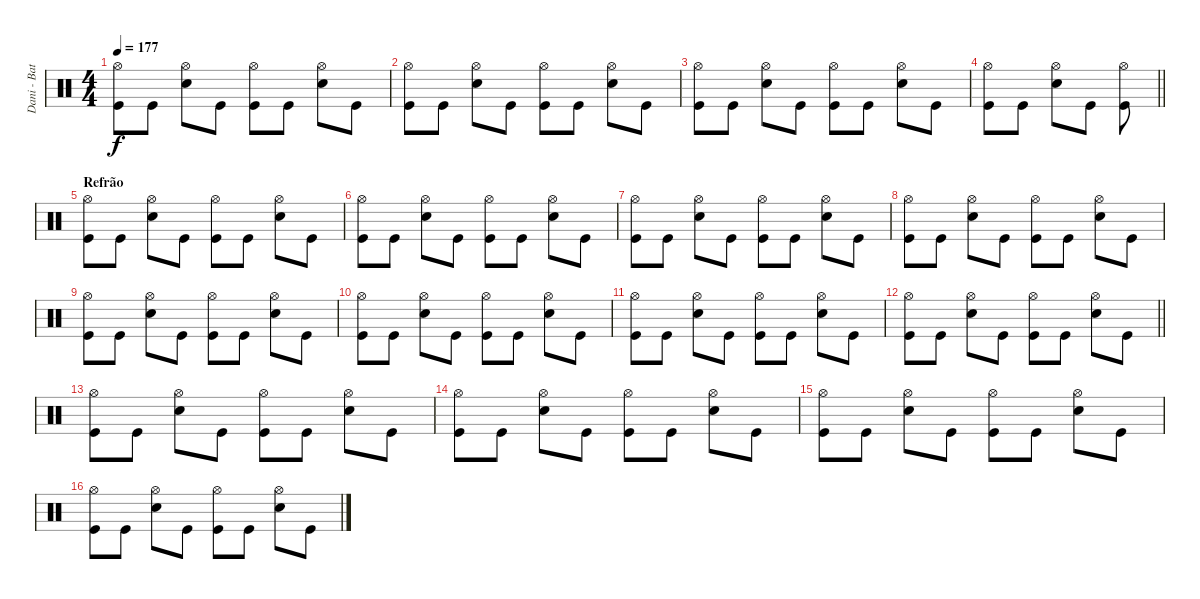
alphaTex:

\track ("Dani - Bateria" "Dani - Bat") {instrument percussion}
\staff {score}
\articulation defaults
\ts (4 4)
\tempo 177
\clef neutral
\ks c
("Hi-Hat (open)" "Kick (hit)").8{dy f} "Kick (hit)".8 ("Hi-Hat (open)" "Electric Snare (hit)").8 "Kick (hit)".8 ("Hi-Hat (open)" "Kick (hit)").8 "Kick (hit)".8 ("Hi-Hat (open)" "Electric Snare (hit)").8 "Kick (hit)".8 |
("Hi-Hat (open)" "Kick (hit)").8 "Kick (hit)".8 ("Hi-Hat (open)" "Electric Snare (hit)").8 "Kick (hit)".8 ("Hi-Hat (open)" "Kick (hit)").8 "Kick (hit)".8 ("Hi-Hat (open)" "Electric Snare (hit)").8 "Kick (hit)".8 |
("Hi-Hat (open)" "Kick (hit)").8 "Kick (hit)".8 ("Hi-Hat (open)" "Electric Snare (hit)").8 "Kick (hit)".8 ("Hi-Hat (open)" "Kick (hit)").8 "Kick (hit)".8 ("Hi-Hat (open)" "Electric Snare (hit)").8 "Kick (hit)".8 |
\barLineRight lightlight
("Hi-Hat (open)" "Kick (hit)").8 "Kick (hit)".8 ("Hi-Hat (open)" "Electric Snare (hit)").8 "Kick (hit)".8 ("Hi-Hat (open)" "Kick (hit)").8 |
\section ("" "Refrão")
("Hi-Hat (open)" "Kick (hit)").8 "Kick (hit)".8 ("Hi-Hat (open)" "Electric Snare (hit)").8 "Kick (hit)".8 ("Hi-Hat (open)" "Kick (hit)").8 "Kick (hit)".8 ("Hi-Hat (open)" "Electric Snare (hit)").8 "Kick (hit)".8 |
("Hi-Hat (open)" "Kick (hit)").8 "Kick (hit)".8 ("Hi-Hat (open)" "Electric Snare (hit)").8 "Kick (hit)".8 ("Hi-Hat (open)" "Kick (hit)").8 "Kick (hit)".8 ("Hi-Hat (open)" "Electric Snare (hit)").8 "Kick (hit)".8 |
("Hi-Hat (open)" "Kick (hit)").8 "Kick (hit)".8 ("Hi-Hat (open)" "Electric Snare (hit)").8 "Kick (hit)".8 ("Hi-Hat (open)" "Kick (hit)").8 "Kick (hit)".8 ("Hi-Hat (open)" "Electric Snare (hit)").8 "Kick (hit)".8 |
("Hi-Hat (open)" "Kick (hit)").8 "Kick (hit)".8 ("Hi-Hat (open)" "Electric Snare (hit)").8 "Kick (hit)".8 ("Hi-Hat (open)" "Kick (hit)").8 "Kick (hit)".8 ("Hi-Hat (open)" "Electric Snare (hit)").8 "Kick (hit)".8 |
("Hi-Hat (open)" "Kick (hit)").8 "Kick (hit)".8 ("Hi-Hat (open)" "Electric Snare (hit)").8 "Kick (hit)".8 ("Hi-Hat (open)" "Kick (hit)").8 "Kick (hit)".8 ("Hi-Hat (open)" "Electric Snare (hit)").8 "Kick (hit)".8 |
("Hi-Hat (open)" "Kick (hit)").8 "Kick (hit)".8 ("Hi-Hat (open)" "Electric Snare (hit)").8 "Kick (hit)".8 ("Hi-Hat (open)" "Kick (hit)").8 "Kick (hit)".8 ("Hi-Hat (open)" "Electric Snare (hit)").8 "Kick (hit)".8 |
("Hi-Hat (open)" "Kick (hit)").8 "Kick (hit)".8 ("Hi-Hat (open)" "Electric Snare (hit)").8 "Kick (hit)".8 ("Hi-Hat (open)" "Kick (hit)").8 "Kick (hit)".8 ("Hi-Hat (open)" "Electric Snare (hit)").8 "Kick (hit)".8 |
\barLineRight lightlight
("Hi-Hat (open)" "Kick (hit)").8 "Kick (hit)".8 ("Hi-Hat (open)" "Electric Snare (hit)").8 "Kick (hit)".8 ("Hi-Hat (open)" "Kick (hit)").8 "Kick (hit)".8 ("Hi-Hat (open)" "Electric Snare (hit)").8 "Kick (hit)".8 |
("Hi-Hat (open)" "Kick (hit)").8 "Kick (hit)".8 ("Hi-Hat (open)" "Electric Snare (hit)").8 "Kick (hit)".8 ("Hi-Hat (open)" "Kick (hit)").8 "Kick (hit)".8 ("Hi-Hat (open)" "Electric Snare (hit)").8 "Kick (hit)".8 |
("Hi-Hat (open)" "Kick (hit)").8 "Kick (hit)".8 ("Hi-Hat (open)" "Electric Snare (hit)").8 "Kick (hit)".8 ("Hi-Hat (open)" "Kick (hit)").8 "Kick (hit)".8 ("Hi-Hat (open)" "Electric Snare (hit)").8 "Kick (hit)".8 |
("Hi-Hat (open)" "Kick (hit)").8 "Kick (hit)".8 ("Hi-Hat (open)" "Electric Snare (hit)").8 "Kick (hit)".8 ("Hi-Hat (open)" "Kick (hit)").8 "Kick (hit)".8 ("Hi-Hat (open)" "Electric Snare (hit)").8 "Kick (hit)".8 |
("Hi-Hat (open)" "Kick (hit)").8 "Kick (hit)".8 ("Hi-Hat (open)" "Electric Snare (hit)").8 "Kick (hit)".8 ("Hi-Hat (open)" "Kick (hit)").8 "Kick (hit)".8 ("Hi-Hat (open)" "Electric Snare (hit)").8 "Kick (hit)".8
